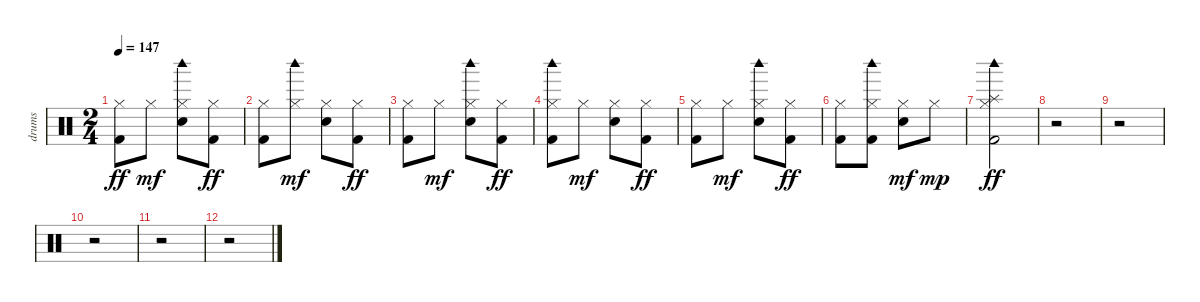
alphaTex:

\track ("drums" "drums") {instrument percussion}
\staff {score}
\articulation defaults
\ts (2 4)
\tempo 147
\clef neutral
\ks c
("Hi-Hat (closed)" "Kick (hit) 2").8{dy ff} "Hi-Hat (closed)".8{dy mf} ("Hi-Hat (closed)" "Woodblock high (hit)" "Electric Snare (hit)").8 ("Hi-Hat (closed)" "Kick (hit) 2").8{dy ff} |
("Hi-Hat (closed)" "Kick (hit) 2").8 ("Hi-Hat (closed)" "Woodblock high (hit)").8{dy mf} ("Hi-Hat (closed)" "Electric Snare (hit)").8 ("Hi-Hat (closed)" "Kick (hit) 2").8{dy ff} |
("Hi-Hat (closed)" "Kick (hit) 2").8 "Hi-Hat (closed)".8{dy mf} ("Hi-Hat (closed)" "Woodblock high (hit)" "Electric Snare (hit)").8 ("Hi-Hat (closed)" "Kick (hit) 2").8{dy ff} |
("Hi-Hat (closed)" "Woodblock high (hit)" "Kick (hit) 2").8 "Hi-Hat (closed)".8{dy mf} ("Hi-Hat (closed)" "Electric Snare (hit)").8 ("Hi-Hat (closed)" "Kick (hit) 2").8{dy ff} |
("Hi-Hat (closed)" "Kick (hit) 2").8 "Hi-Hat (closed)".8{dy mf} ("Hi-Hat (closed)" "Woodblock high (hit)" "Electric Snare (hit)").8 ("Hi-Hat (closed)" "Kick (hit) 2").8{dy ff} |
("Hi-Hat (closed)" "Kick (hit) 2").8 ("Hi-Hat (closed)" "Woodblock high (hit)" "Kick (hit) 2").8 ("Hi-Hat (closed)" "Electric Snare (hit)").8{dy mf} "Hi-Hat (closed)".8{dy mp} |
("Hi-Hat (closed)" "Woodblock high (hit)" "Splash (hit)" "Kick (hit) 2").2{dy ff volume 16} |
r.2 |
r.2 |
r.2 |
r.2 |
r.2
